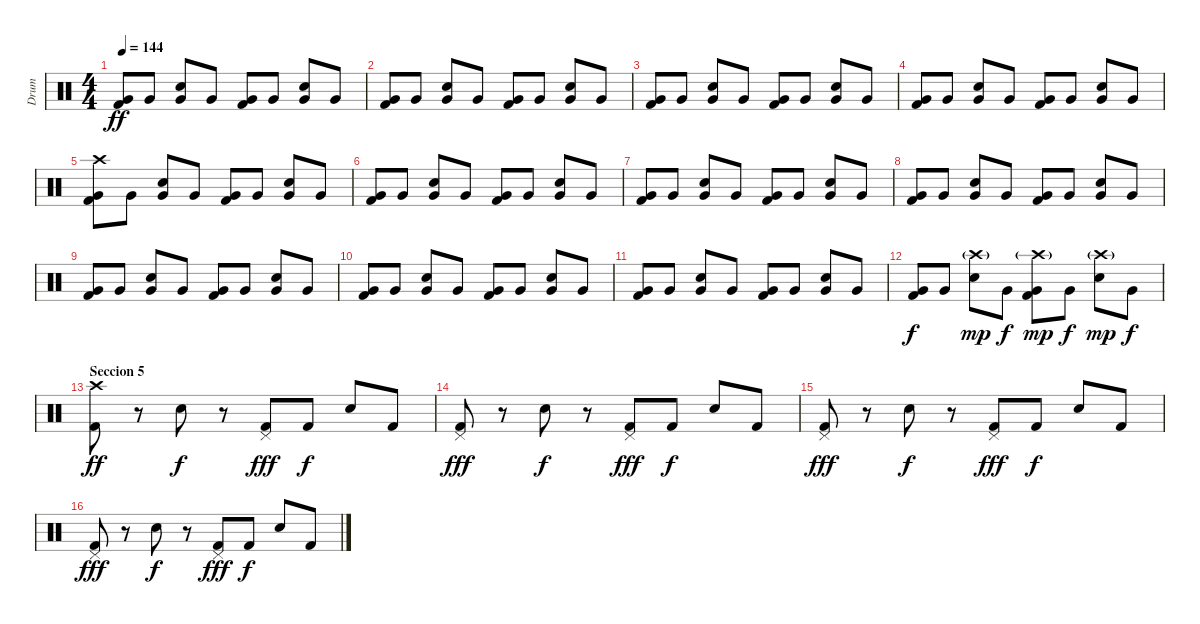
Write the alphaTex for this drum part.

\track ("Drum" "Drum") {instrument percussion}
\staff {score}
\articulation defaults
\ts (4 4)
\tempo 144
\clef neutral
\ks c
("Very Low Tom (hit)" "Kick (hit) 2").8{dy ff} "Very Low Tom (hit)".8 ("Electric Snare (hit)" "Very Low Tom (hit)").8 "Very Low Tom (hit)".8 ("Very Low Tom (hit)" "Kick (hit) 2").8 "Very Low Tom (hit)".8 ("Electric Snare (hit)" "Very Low Tom (hit)").8 "Very Low Tom (hit)".8 |
("Very Low Tom (hit)" "Kick (hit) 2").8 "Very Low Tom (hit)".8 ("Electric Snare (hit)" "Very Low Tom (hit)").8 "Very Low Tom (hit)".8 ("Very Low Tom (hit)" "Kick (hit) 2").8 "Very Low Tom (hit)".8 ("Electric Snare (hit)" "Very Low Tom (hit)").8 "Very Low Tom (hit)".8 |
("Very Low Tom (hit)" "Kick (hit) 2").8 "Very Low Tom (hit)".8 ("Electric Snare (hit)" "Very Low Tom (hit)").8 "Very Low Tom (hit)".8 ("Very Low Tom (hit)" "Kick (hit) 2").8 "Very Low Tom (hit)".8 ("Electric Snare (hit)" "Very Low Tom (hit)").8 "Very Low Tom (hit)".8 |
("Very Low Tom (hit)" "Kick (hit) 2").8 "Very Low Tom (hit)".8 ("Electric Snare (hit)" "Very Low Tom (hit)").8 "Very Low Tom (hit)".8 ("Very Low Tom (hit)" "Kick (hit) 2").8 "Very Low Tom (hit)".8 ("Electric Snare (hit)" "Very Low Tom (hit)").8 "Very Low Tom (hit)".8 |
("Crash high (hit)" "Very Low Tom (hit)" "Kick (hit) 2").8 "Very Low Tom (hit)".8 ("Electric Snare (hit)" "Very Low Tom (hit)").8 "Very Low Tom (hit)".8 ("Very Low Tom (hit)" "Kick (hit) 2").8 "Very Low Tom (hit)".8 ("Electric Snare (hit)" "Very Low Tom (hit)").8 "Very Low Tom (hit)".8 |
("Very Low Tom (hit)" "Kick (hit) 2").8 "Very Low Tom (hit)".8 ("Electric Snare (hit)" "Very Low Tom (hit)").8 "Very Low Tom (hit)".8 ("Very Low Tom (hit)" "Kick (hit) 2").8 "Very Low Tom (hit)".8 ("Electric Snare (hit)" "Very Low Tom (hit)").8 "Very Low Tom (hit)".8 |
("Very Low Tom (hit)" "Kick (hit) 2").8 "Very Low Tom (hit)".8 ("Electric Snare (hit)" "Very Low Tom (hit)").8 "Very Low Tom (hit)".8 ("Very Low Tom (hit)" "Kick (hit) 2").8 "Very Low Tom (hit)".8 ("Electric Snare (hit)" "Very Low Tom (hit)").8 "Very Low Tom (hit)".8 |
("Very Low Tom (hit)" "Kick (hit) 2").8 "Very Low Tom (hit)".8 ("Electric Snare (hit)" "Very Low Tom (hit)").8 "Very Low Tom (hit)".8 ("Very Low Tom (hit)" "Kick (hit) 2").8 "Very Low Tom (hit)".8 ("Electric Snare (hit)" "Very Low Tom (hit)").8 "Very Low Tom (hit)".8 |
("Very Low Tom (hit)" "Kick (hit) 2").8 "Very Low Tom (hit)".8 ("Electric Snare (hit)" "Very Low Tom (hit)").8 "Very Low Tom (hit)".8 ("Very Low Tom (hit)" "Kick (hit) 2").8 "Very Low Tom (hit)".8 ("Electric Snare (hit)" "Very Low Tom (hit)").8 "Very Low Tom (hit)".8 |
("Very Low Tom (hit)" "Kick (hit) 2").8 "Very Low Tom (hit)".8 ("Electric Snare (hit)" "Very Low Tom (hit)").8 "Very Low Tom (hit)".8 ("Very Low Tom (hit)" "Kick (hit) 2").8 "Very Low Tom (hit)".8 ("Electric Snare (hit)" "Very Low Tom (hit)").8 "Very Low Tom (hit)".8 |
("Very Low Tom (hit)" "Kick (hit) 2").8 "Very Low Tom (hit)".8 ("Electric Snare (hit)" "Very Low Tom (hit)").8 "Very Low Tom (hit)".8 ("Very Low Tom (hit)" "Kick (hit) 2").8 "Very Low Tom (hit)".8 ("Electric Snare (hit)" "Very Low Tom (hit)").8 "Very Low Tom (hit)".8 |
("Very Low Tom (hit)" "Kick (hit) 2").8{dy f} "Very Low Tom (hit)".8 ("Crash high (hit)"{g} "Electric Snare (hit)").8{dy mp} "Very Low Tom (hit)".8{dy f} ("Crash high (hit)"{g} "Very Low Tom (hit)" "Kick (hit) 2").8{dy mp} "Very Low Tom (hit)".8{dy f} ("Crash high (hit)"{g} "Electric Snare (hit)").8{dy mp} "Very Low Tom (hit)".8{dy f} |
\section ("" "Seccion 5")
("Crash high (hit)" "Kick (hit) 2").8{dy ff} r.8 "Electric Snare (hit)".8{dy f} r.8 ("Pedal Hi-Hat (hit)" "Kick (hit) 2").8{dy fff} "Kick (hit) 2".8{dy f} "Electric Snare (hit)".8 "Kick (hit) 2".8 |
("Pedal Hi-Hat (hit)" "Kick (hit) 2").8{dy fff} r.8 "Electric Snare (hit)".8{dy f} r.8 ("Pedal Hi-Hat (hit)" "Kick (hit) 2").8{dy fff} "Kick (hit) 2".8{dy f} "Electric Snare (hit)".8 "Kick (hit) 2".8 |
("Pedal Hi-Hat (hit)" "Kick (hit) 2").8{dy fff} r.8 "Electric Snare (hit)".8{dy f} r.8 ("Pedal Hi-Hat (hit)" "Kick (hit) 2").8{dy fff} "Kick (hit) 2".8{dy f} "Electric Snare (hit)".8 "Kick (hit) 2".8 |
("Pedal Hi-Hat (hit)" "Kick (hit) 2").8{dy fff} r.8 "Electric Snare (hit)".8{dy f} r.8 ("Pedal Hi-Hat (hit)" "Kick (hit) 2").8{dy fff} "Kick (hit) 2".8{dy f} "Electric Snare (hit)".8 "Kick (hit) 2".8
